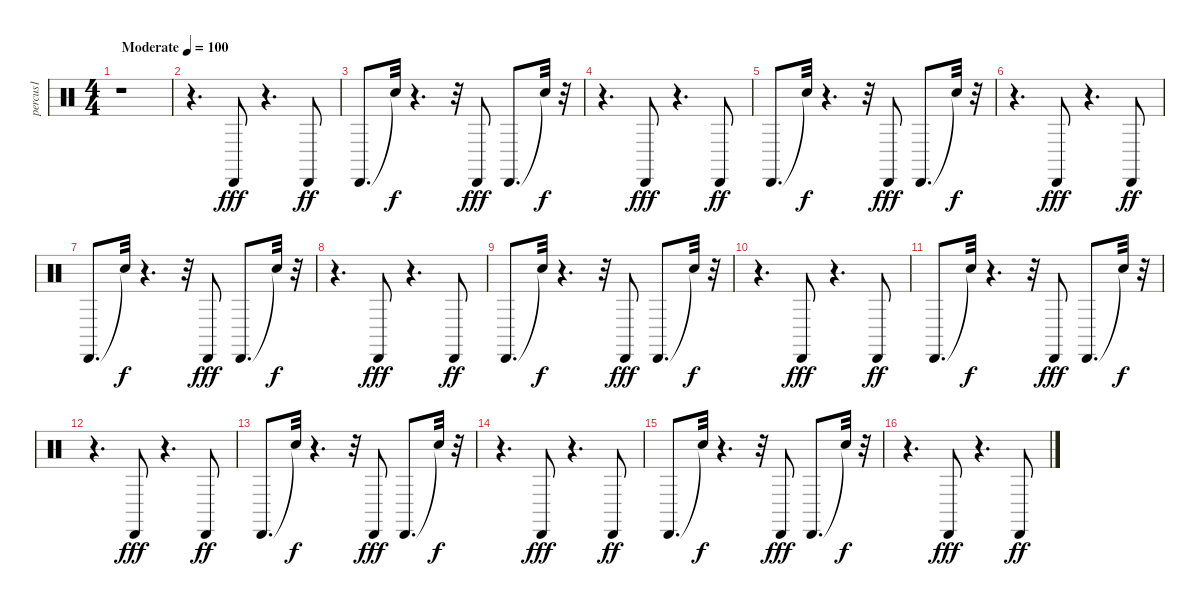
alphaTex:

\track ("percus1" "percus1") {instrument percussion}
\staff {score}
\articulation defaults
\ts (4 4)
\tempo (100 "Moderate")
\clef neutral
\ks c
r.1{dy fff} |
r.4{d} "Cabasa (hit)".8 r.4{d} "Cabasa (hit)".8{dy ff} |
"Cabasa (hit)".8{d} "Snare (hit)"{t}.32{dy f} r.4{d} r.32 "Cabasa (hit)".8{dy fff} "Cabasa (hit)".8{d} "Snare (hit)"{t}.32{dy f} r.32 |
r.4{d} "Cabasa (hit)".8{dy fff} r.4{d} "Cabasa (hit)".8{dy ff} |
"Cabasa (hit)".8{d} "Snare (hit)"{t}.32{dy f} r.4{d} r.32 "Cabasa (hit)".8{dy fff} "Cabasa (hit)".8{d} "Snare (hit)"{t}.32{dy f} r.32 |
r.4{d} "Cabasa (hit)".8{dy fff} r.4{d} "Cabasa (hit)".8{dy ff} |
"Cabasa (hit)".8{d} "Snare (hit)"{t}.32{dy f} r.4{d} r.32 "Cabasa (hit)".8{dy fff} "Cabasa (hit)".8{d} "Snare (hit)"{t}.32{dy f} r.32 |
r.4{d} "Cabasa (hit)".8{dy fff} r.4{d} "Cabasa (hit)".8{dy ff} |
"Cabasa (hit)".8{d} "Snare (hit)"{t}.32{dy f} r.4{d} r.32 "Cabasa (hit)".8{dy fff} "Cabasa (hit)".8{d} "Snare (hit)"{t}.32{dy f} r.32 |
r.4{d} "Cabasa (hit)".8{dy fff} r.4{d} "Cabasa (hit)".8{dy ff} |
"Cabasa (hit)".8{d} "Snare (hit)"{t}.32{dy f} r.4{d} r.32 "Cabasa (hit)".8{dy fff} "Cabasa (hit)".8{d} "Snare (hit)"{t}.32{dy f} r.32 |
r.4{d} "Cabasa (hit)".8{dy fff} r.4{d} "Cabasa (hit)".8{dy ff} |
"Cabasa (hit)".8{d} "Snare (hit)"{t}.32{dy f} r.4{d} r.32 "Cabasa (hit)".8{dy fff} "Cabasa (hit)".8{d} "Snare (hit)"{t}.32{dy f} r.32 |
r.4{d} "Cabasa (hit)".8{dy fff} r.4{d} "Cabasa (hit)".8{dy ff} |
"Cabasa (hit)".8{d} "Snare (hit)"{t}.32{dy f} r.4{d} r.32 "Cabasa (hit)".8{dy fff} "Cabasa (hit)".8{d} "Snare (hit)"{t}.32{dy f} r.32 |
r.4{d} "Cabasa (hit)".8{dy fff} r.4{d} "Cabasa (hit)".8{dy ff}
